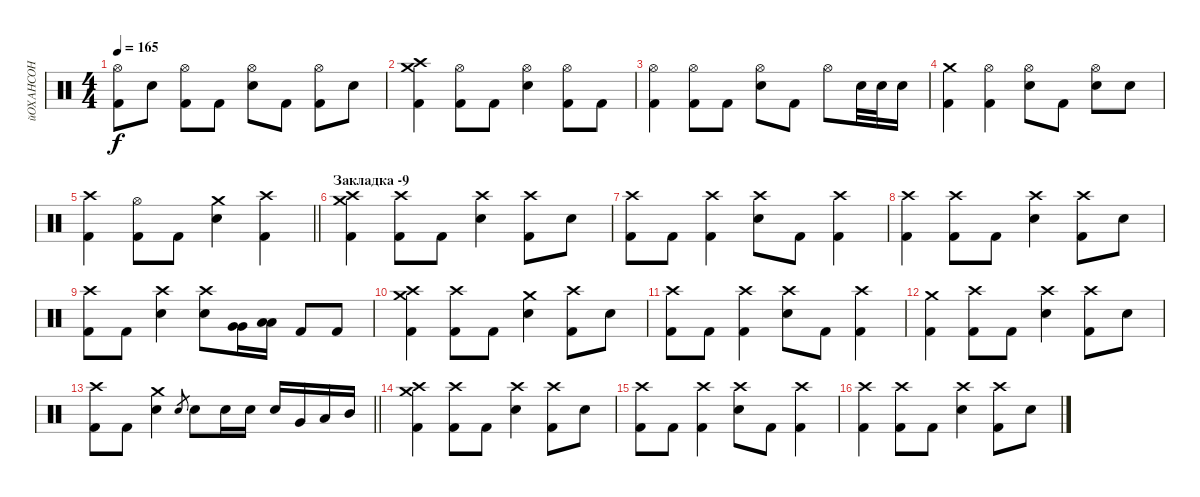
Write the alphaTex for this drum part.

\track ("йОХАНСОН" "йОХАНСОН") {instrument percussion}
\staff {score}
\articulation defaults
\ts (4 4)
\tempo 165
\clef neutral
\ks c
("Hi-Hat (open)" "Kick (hit) 2").8{dy f} "Snare (hit) 2".8 ("Hi-Hat (open)" "Kick (hit) 2").8 "Kick (hit) 2".8 ("Hi-Hat (open)" "Snare (hit) 2").8 "Kick (hit) 2".8 ("Hi-Hat (open)" "Kick (hit) 2").8 "Snare (hit) 2".8 |
("Crash high (hit)" "Crash medium (hit)" "Kick (hit) 2").4 ("Hi-Hat (open)" "Kick (hit) 2").8 "Kick (hit) 2".8 ("Hi-Hat (open)" "Snare (hit) 2").4 ("Hi-Hat (open)" "Kick (hit) 2").8 "Kick (hit) 2".8 |
("Hi-Hat (open)" "Kick (hit) 2").4 ("Hi-Hat (open)" "Kick (hit) 2").8 "Kick (hit) 2".8 ("Hi-Hat (open)" "Snare (hit) 2").8 "Kick (hit) 2".8 "Hi-Hat (open)".8 "Snare (hit) 2".32 "Snare (hit) 2".32 "Snare (hit) 2".16 |
("Crash medium (hit)" "Kick (hit) 2").4 ("Hi-Hat (open)" "Kick (hit) 2").4 ("Hi-Hat (open)" "Snare (hit) 2").8 "Kick (hit) 2".8 ("Hi-Hat (open)" "Snare (hit) 2").8 "Snare (hit) 2".8 |
\barLineRight lightlight
("Crash high (hit)" "Kick (hit) 2").4 ("Hi-Hat (open)" "Kick (hit) 2").8 "Kick (hit) 2".8 ("Crash medium (hit)" "Snare (hit) 2").4 ("Crash high (hit)" "Kick (hit) 2").4 |
\section ("" "Закладка -9")
("Crash medium (hit)" "Crash high (hit)" "Kick (hit) 2").4 ("Crash high (hit)" "Kick (hit) 2").8 "Kick (hit) 2".8 ("Crash high (hit)" "Snare (hit) 2").4 ("Crash high (hit)" "Kick (hit) 2").8 "Snare (hit) 2".8 |
("Crash high (hit)" "Kick (hit) 2").8 "Kick (hit) 2".8 ("Crash high (hit)" "Kick (hit) 2").4 ("Crash high (hit)" "Snare (hit) 2").8 "Kick (hit) 2".8 ("Crash high (hit)" "Kick (hit) 2").4 |
("Crash high (hit)" "Kick (hit) 2").4 ("Crash high (hit)" "Kick (hit) 2").8 "Kick (hit) 2".8 ("Crash high (hit)" "Snare (hit) 2").4 ("Crash high (hit)" "Kick (hit) 2").8 "Snare (hit) 2".8 |
("Crash high (hit)" "Kick (hit) 2").8 "Kick (hit) 2".8 ("Crash high (hit)" "Snare (hit) 2").4 ("Crash high (hit)" "Snare (hit) 2").8 ("Very Low Tom (hit)" "Very Low Tom (hit)").16 ("Low Tom (hit)" "Low Tom (hit)").16 "Kick (hit) 2".8 "Kick (hit) 2".8 |
("Crash medium (hit)" "Crash high (hit)" "Kick (hit) 2").4 ("Crash high (hit)" "Kick (hit) 2").8 "Kick (hit) 2".8 ("Crash medium (hit)" "Snare (hit) 2").4 ("Crash high (hit)" "Kick (hit) 2").8 "Snare (hit) 2".8 |
("Crash high (hit)" "Kick (hit) 2").8 "Kick (hit) 2".8 ("Crash high (hit)" "Kick (hit) 2").4 ("Crash high (hit)" "Snare (hit) 2").8 "Kick (hit) 2".8 ("Crash high (hit)" "Kick (hit) 2").4 |
("Crash medium (hit)" "Kick (hit) 2").4 ("Crash high (hit)" "Kick (hit) 2").8 "Kick (hit) 2".8 ("Crash high (hit)" "Snare (hit) 2").4 ("Crash high (hit)" "Kick (hit) 2").8 "Snare (hit) 2".8 |
\barLineRight lightlight
("Crash high (hit)" "Kick (hit) 2").8 "Kick (hit) 2".8 ("Crash medium (hit)" "Snare (hit) 2").4 "Snare (hit) 2".8{gr} "Snare (hit) 2".8 "Snare (hit) 2".16 "Snare (hit) 2".16 "Snare (hit) 2".16 "Very Low Tom (hit)".16 "Low Tom (hit)".16 "Mid Tom (hit)".16 |
("Crash medium (hit)" "Crash high (hit)" "Kick (hit) 2").4 ("Crash high (hit)" "Kick (hit) 2").8 "Kick (hit) 2".8 ("Crash high (hit)" "Snare (hit) 2").4 ("Crash high (hit)" "Kick (hit) 2").8 "Snare (hit) 2".8 |
("Crash high (hit)" "Kick (hit) 2").8 "Kick (hit) 2".8 ("Crash high (hit)" "Kick (hit) 2").4 ("Crash high (hit)" "Snare (hit) 2").8 "Kick (hit) 2".8 ("Crash high (hit)" "Kick (hit) 2").4 |
("Crash high (hit)" "Kick (hit) 2").4 ("Crash high (hit)" "Kick (hit) 2").8 "Kick (hit) 2".8 ("Crash high (hit)" "Snare (hit) 2").4 ("Crash high (hit)" "Kick (hit) 2").8 "Snare (hit) 2".8
